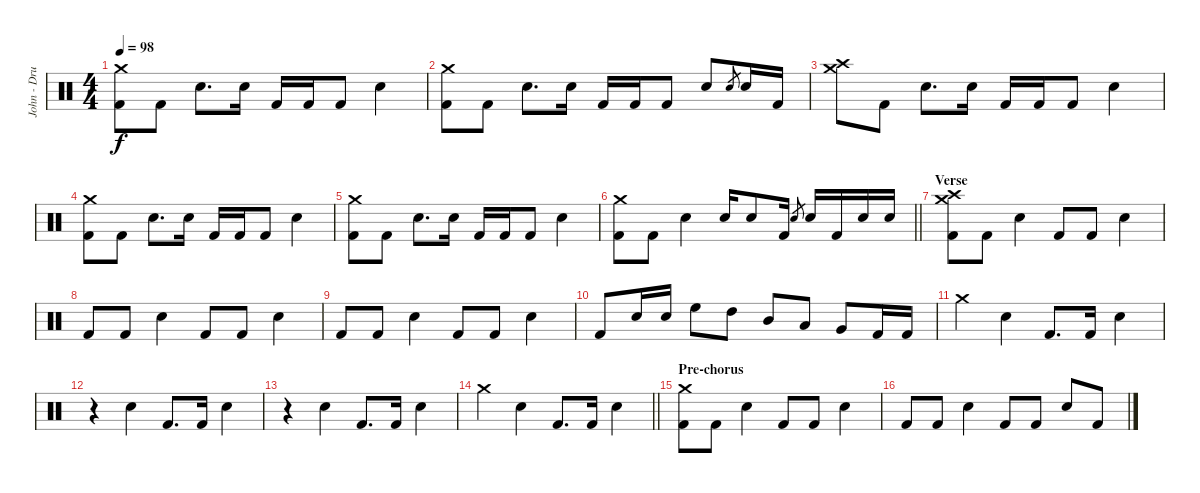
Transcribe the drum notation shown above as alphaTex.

\track ("John - Drums" "John - Dru") {instrument percussion}
\staff {score}
\articulation defaults
\ts (4 4)
\tempo 98
\clef neutral
\ks c
("Crash medium (hit)" "Kick (hit) 2").8{dy f} "Kick (hit) 2".8 "Electric Snare (hit)".8{d} "Electric Snare (hit)".16 "Kick (hit) 2".16 "Kick (hit) 2".16 "Kick (hit) 2".8 "Electric Snare (hit)".4 |
("Crash medium (hit)" "Kick (hit) 2").8 "Kick (hit) 2".8 "Electric Snare (hit)".8{d} "Electric Snare (hit)".16 "Kick (hit) 2".16 "Kick (hit) 2".16 "Kick (hit) 2".8 "Electric Snare (hit)".8 "Electric Snare (hit)".8{gr} "Electric Snare (hit)".16 "Kick (hit) 2".16 |
("Crash high (hit)" "Crash medium (hit)").8 "Kick (hit) 2".8 "Electric Snare (hit)".8{d} "Electric Snare (hit)".16 "Kick (hit) 2".16 "Kick (hit) 2".16 "Kick (hit) 2".8 "Electric Snare (hit)".4 |
("Crash medium (hit)" "Kick (hit) 2").8 "Kick (hit) 2".8 "Electric Snare (hit)".8{d} "Electric Snare (hit)".16 "Kick (hit) 2".16 "Kick (hit) 2".16 "Kick (hit) 2".8 "Electric Snare (hit)".4 |
("Crash medium (hit)" "Kick (hit) 2").8 "Kick (hit) 2".8 "Electric Snare (hit)".8{d} "Electric Snare (hit)".16 "Kick (hit) 2".16 "Kick (hit) 2".16 "Kick (hit) 2".8 "Electric Snare (hit)".4 |
\barLineRight lightlight
("Crash medium (hit)" "Kick (hit) 2").8 "Kick (hit) 2".8 "Electric Snare (hit)".4 "Electric Snare (hit)".16 "Electric Snare (hit)".8 "Kick (hit) 2".16 "Electric Snare (hit)".8{gr} "Electric Snare (hit)".16 "Kick (hit) 2".16 "Electric Snare (hit)".16 "Electric Snare (hit)".16 |
\section ("" "Verse")
("Crash high (hit)" "Crash medium (hit)" "Kick (hit) 2").8 "Kick (hit) 2".8 "Electric Snare (hit)".4 "Kick (hit) 2".8 "Kick (hit) 2".8 "Electric Snare (hit)".4 |
"Kick (hit) 2".8 "Kick (hit) 2".8 "Electric Snare (hit)".4 "Kick (hit) 2".8 "Kick (hit) 2".8 "Electric Snare (hit)".4 |
"Kick (hit) 2".8 "Kick (hit) 2".8 "Electric Snare (hit)".4 "Kick (hit) 2".8 "Kick (hit) 2".8 "Electric Snare (hit)".4 |
"Kick (hit) 2".8 "Electric Snare (hit)".16 "Electric Snare (hit)".16 "High Floor Tom (hit)".8 "High Tom (hit)".8 "Mid Tom (hit)".8 "Low Tom (hit)".8 "Very Low Tom (hit)".8 "Kick (hit) 2".16 "Kick (hit) 2".16 |
"Crash medium (hit)".4 "Electric Snare (hit)".4 "Kick (hit) 2".8{d} "Kick (hit) 2".16 "Electric Snare (hit)".4 |
r.4 "Electric Snare (hit)".4 "Kick (hit) 2".8{d} "Kick (hit) 2".16 "Electric Snare (hit)".4 |
r.4 "Electric Snare (hit)".4 "Kick (hit) 2".8{d} "Kick (hit) 2".16 "Electric Snare (hit)".4 |
\barLineRight lightlight "Crash medium (hit)".4 "Electric Snare (hit)".4 "Kick (hit) 2".8{d} "Kick (hit) 2".16 "Electric Snare (hit)".4
|
\section ("" "Pre-chorus")
("Crash medium (hit)" "Kick (hit) 2").8 "Kick (hit) 2".8 "Electric Snare (hit)".4 "Kick (hit) 2".8 "Kick (hit) 2".8 "Electric Snare (hit)".4 |
"Kick (hit) 2".8 "Kick (hit) 2".8 "Electric Snare (hit)".4 "Kick (hit) 2".8 "Kick (hit) 2".8 "Electric Snare (hit)".8 "Kick (hit) 2".8
